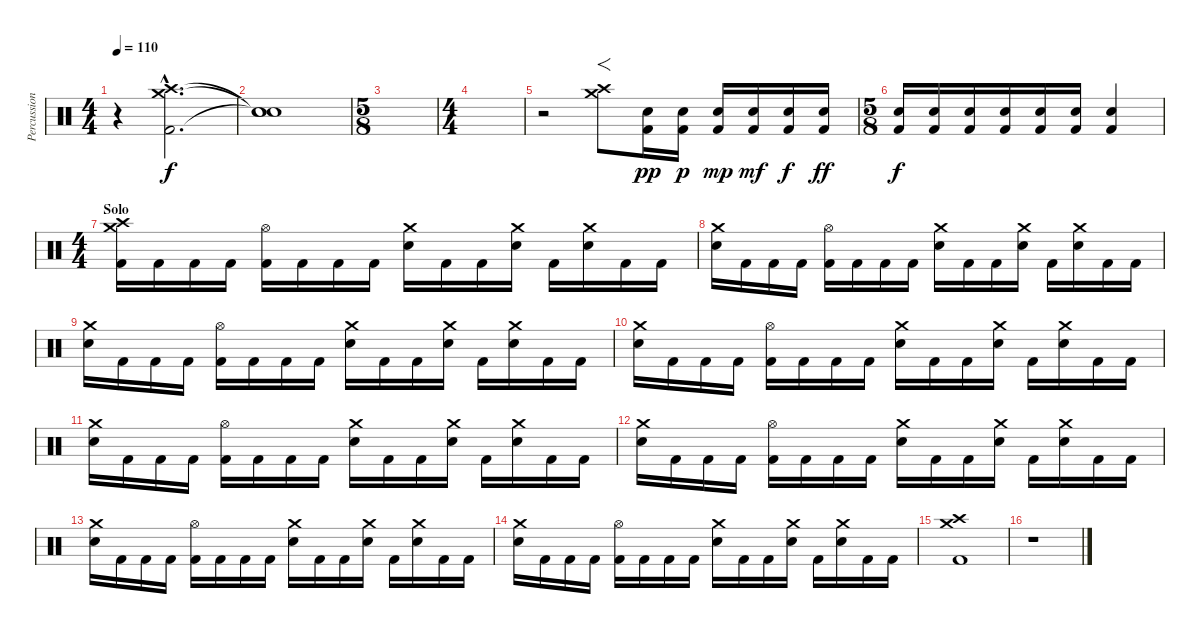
\track ("Percussion" "Percussion") {instrument percussion}
\staff {score}
\articulation defaults
\ts (4 4)
\tempo 110
\clef neutral
\ks c
r.4{dy f} ("Crash high (hit)"{hac} "Crash medium (hit)"{hac} "Kick (hit) 2"{hac}).2{d} |
("Snare (hit)"{t} "Snare (hit)"{t} "Snare (hit)"{t}).1 |
\ts (5 8)
|
\ts (4 4)
|
r.2 ("Crash medium (hit)" "Crash high (hit)").8{f} ("Electric Snare (hit)" "Kick (hit) 2").16{dy pp} ("Electric Snare (hit)" "Kick (hit) 2").16{dy p} ("Electric Snare (hit)" "Kick (hit) 2").16{dy mp} ("Electric Snare (hit)" "Kick (hit) 2").16{dy mf} ("Electric Snare (hit)" "Kick (hit) 2").16{dy f} ("Electric Snare (hit)" "Kick (hit) 2").16{dy ff} |
\ts (5 8)
("Electric Snare (hit)" "Kick (hit) 2").16{dy f} ("Electric Snare (hit)" "Kick (hit) 2").16 ("Electric Snare (hit)" "Kick (hit) 2").16 ("Electric Snare (hit)" "Kick (hit) 2").16 ("Electric Snare (hit)" "Kick (hit) 2").16 ("Electric Snare (hit)" "Kick (hit) 2").16 ("Electric Snare (hit)" "Kick (hit) 2").4 |
\ts (4 4)
\section ("" "Solo")
("Crash medium (hit)" "Crash high (hit)" "Kick (hit) 2").16 "Kick (hit) 2".16 "Kick (hit) 2".16 "Kick (hit) 2".16 ("Hi-Hat (open)" "Kick (hit) 2").16 "Kick (hit) 2".16 "Kick (hit) 2".16 "Kick (hit) 2".16 ("Crash medium (hit)" "Electric Snare (hit)").16 "Kick (hit) 2".16 "Kick (hit) 2".16 ("Crash medium (hit)" "Electric Snare (hit)").16 "Kick (hit) 2".16 ("Crash medium (hit)" "Electric Snare (hit)").16 "Kick (hit) 2".16 "Kick (hit) 2".16 |
("Crash medium (hit)" "Electric Snare (hit)").16 "Kick (hit) 2".16 "Kick (hit) 2".16 "Kick (hit) 2".16 ("Hi-Hat (open)" "Kick (hit) 2").16 "Kick (hit) 2".16 "Kick (hit) 2".16 "Kick (hit) 2".16 ("Crash medium (hit)" "Electric Snare (hit)").16 "Kick (hit) 2".16 "Kick (hit) 2".16 ("Crash medium (hit)" "Electric Snare (hit)").16 "Kick (hit) 2".16 ("Crash medium (hit)" "Electric Snare (hit)").16 "Kick (hit) 2".16 "Kick (hit) 2".16 |
("Crash medium (hit)" "Electric Snare (hit)").16 "Kick (hit) 2".16 "Kick (hit) 2".16 "Kick (hit) 2".16 ("Hi-Hat (open)" "Kick (hit) 2").16 "Kick (hit) 2".16 "Kick (hit) 2".16 "Kick (hit) 2".16 ("Crash medium (hit)" "Electric Snare (hit)").16 "Kick (hit) 2".16 "Kick (hit) 2".16 ("Crash medium (hit)" "Electric Snare (hit)").16 "Kick (hit) 2".16 ("Crash medium (hit)" "Electric Snare (hit)").16 "Kick (hit) 2".16 "Kick (hit) 2".16 |
("Crash medium (hit)" "Electric Snare (hit)").16 "Kick (hit) 2".16 "Kick (hit) 2".16 "Kick (hit) 2".16 ("Hi-Hat (open)" "Kick (hit) 2").16 "Kick (hit) 2".16 "Kick (hit) 2".16 "Kick (hit) 2".16 ("Crash medium (hit)" "Electric Snare (hit)").16 "Kick (hit) 2".16 "Kick (hit) 2".16 ("Crash medium (hit)" "Electric Snare (hit)").16 "Kick (hit) 2".16 ("Crash medium (hit)" "Electric Snare (hit)").16 "Kick (hit) 2".16 "Kick (hit) 2".16 |
("Crash medium (hit)" "Electric Snare (hit)").16 "Kick (hit) 2".16 "Kick (hit) 2".16 "Kick (hit) 2".16 ("Hi-Hat (open)" "Kick (hit) 2").16 "Kick (hit) 2".16 "Kick (hit) 2".16 "Kick (hit) 2".16 ("Crash medium (hit)" "Electric Snare (hit)").16 "Kick (hit) 2".16 "Kick (hit) 2".16 ("Crash medium (hit)" "Electric Snare (hit)").16 "Kick (hit) 2".16 ("Crash medium (hit)" "Electric Snare (hit)").16 "Kick (hit) 2".16 "Kick (hit) 2".16 |
("Crash medium (hit)" "Electric Snare (hit)").16 "Kick (hit) 2".16 "Kick (hit) 2".16 "Kick (hit) 2".16 ("Hi-Hat (open)" "Kick (hit) 2").16 "Kick (hit) 2".16 "Kick (hit) 2".16 "Kick (hit) 2".16 ("Crash medium (hit)" "Electric Snare (hit)").16 "Kick (hit) 2".16 "Kick (hit) 2".16 ("Crash medium (hit)" "Electric Snare (hit)").16 "Kick (hit) 2".16 ("Crash medium (hit)" "Electric Snare (hit)").16 "Kick (hit) 2".16 "Kick (hit) 2".16 |
("Crash medium (hit)" "Electric Snare (hit)").16 "Kick (hit) 2".16 "Kick (hit) 2".16 "Kick (hit) 2".16 ("Hi-Hat (open)" "Kick (hit) 2").16 "Kick (hit) 2".16 "Kick (hit) 2".16 "Kick (hit) 2".16 ("Crash medium (hit)" "Electric Snare (hit)").16 "Kick (hit) 2".16 "Kick (hit) 2".16 ("Crash medium (hit)" "Electric Snare (hit)").16 "Kick (hit) 2".16 ("Crash medium (hit)" "Electric Snare (hit)").16 "Kick (hit) 2".16 "Kick (hit) 2".16 |
("Crash medium (hit)" "Electric Snare (hit)").16 "Kick (hit) 2".16 "Kick (hit) 2".16 "Kick (hit) 2".16 ("Hi-Hat (open)" "Kick (hit) 2").16 "Kick (hit) 2".16 "Kick (hit) 2".16 "Kick (hit) 2".16 ("Crash medium (hit)" "Electric Snare (hit)").16 "Kick (hit) 2".16 "Kick (hit) 2".16 ("Crash medium (hit)" "Electric Snare (hit)").16 "Kick (hit) 2".16 ("Crash medium (hit)" "Electric Snare (hit)").16 "Kick (hit) 2".16 "Kick (hit) 2".16 |
("Crash high (hit)" "Crash medium (hit)" "Kick (hit) 2").1 |
r.1
